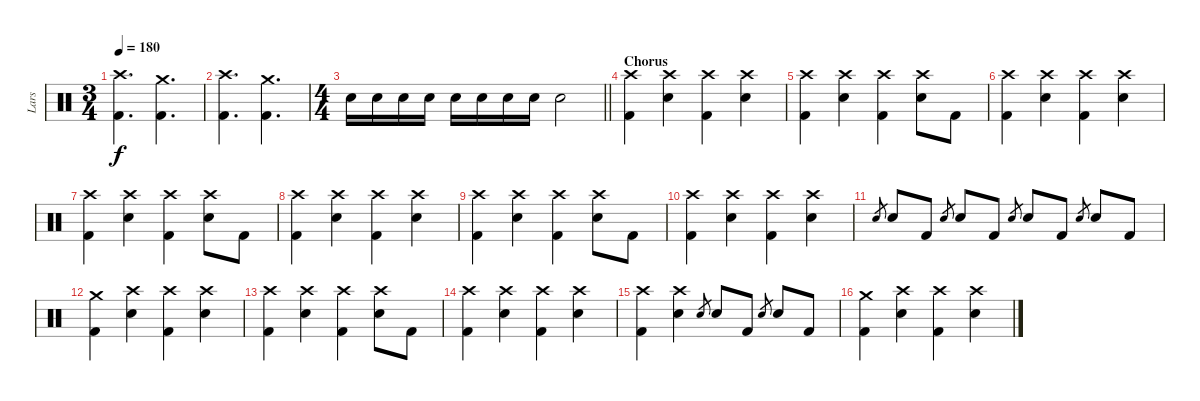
\track ("Lars" "Lars") {instrument percussion}
\staff {score}
\articulation defaults
\ts (3 4)
\tempo 180
\clef neutral
\ks c
("Crash high (hit)" "Kick (hit) 2").4{d dy f} ("Crash medium (hit)" "Kick (hit) 2").4{d} |
("Crash high (hit)" "Kick (hit) 2").4{d} ("Crash medium (hit)" "Kick (hit) 2").4{d} |
\ts (4 4)
\barLineRight lightlight "Electric Snare (hit)".16 "Electric Snare (hit)".16 "Electric Snare (hit)".16 "Electric Snare (hit)".16 "Electric Snare (hit)".16 "Electric Snare (hit)".16 "Electric Snare (hit)".16 "Electric Snare (hit)".16 "Electric Snare (hit)".2
|
\section ("" "Chorus")
("Crash high (hit)" "Kick (hit) 2").4 ("Crash high (hit)" "Electric Snare (hit)").4 ("Crash high (hit)" "Kick (hit) 2").4 ("Crash high (hit)" "Electric Snare (hit)").4 |
("Crash high (hit)" "Kick (hit) 2").4 ("Crash high (hit)" "Electric Snare (hit)").4 ("Crash high (hit)" "Kick (hit) 2").4 ("Crash high (hit)" "Electric Snare (hit)").8 "Kick (hit) 2".8 |
("Crash high (hit)" "Kick (hit) 2").4 ("Crash high (hit)" "Electric Snare (hit)").4 ("Crash high (hit)" "Kick (hit) 2").4 ("Crash high (hit)" "Electric Snare (hit)").4 |
("Crash high (hit)" "Kick (hit) 2").4 ("Crash high (hit)" "Electric Snare (hit)").4 ("Crash high (hit)" "Kick (hit) 2").4 ("Crash high (hit)" "Electric Snare (hit)").8 "Kick (hit) 2".8 |
("Crash high (hit)" "Kick (hit) 2").4 ("Crash high (hit)" "Electric Snare (hit)").4 ("Crash high (hit)" "Kick (hit) 2").4 ("Crash high (hit)" "Electric Snare (hit)").4 |
("Crash high (hit)" "Kick (hit) 2").4 ("Crash high (hit)" "Electric Snare (hit)").4 ("Crash high (hit)" "Kick (hit) 2").4 ("Crash high (hit)" "Electric Snare (hit)").8 "Kick (hit) 2".8 |
("Crash high (hit)" "Kick (hit) 2").4 ("Crash high (hit)" "Electric Snare (hit)").4 ("Crash high (hit)" "Kick (hit) 2").4 ("Crash high (hit)" "Electric Snare (hit)").4 |
"Electric Snare (hit)".8{gr} "Electric Snare (hit)".8 "Kick (hit) 2".8 "Electric Snare (hit)".8{gr} "Electric Snare (hit)".8 "Kick (hit) 2".8 "Electric Snare (hit)".8{gr} "Electric Snare (hit)".8 "Kick (hit) 2".8 "Electric Snare (hit)".8{gr} "Electric Snare (hit)".8 "Kick (hit) 2".8 |
("Crash medium (hit)" "Kick (hit) 2").4 ("Crash high (hit)" "Electric Snare (hit)").4 ("Crash high (hit)" "Kick (hit) 2").4 ("Crash high (hit)" "Electric Snare (hit)").4 |
("Crash high (hit)" "Kick (hit) 2").4 ("Crash high (hit)" "Electric Snare (hit)").4 ("Crash high (hit)" "Kick (hit) 2").4 ("Crash high (hit)" "Electric Snare (hit)").8 "Kick (hit) 2".8 |
("Crash high (hit)" "Kick (hit) 2").4 ("Crash high (hit)" "Electric Snare (hit)").4 ("Crash high (hit)" "Kick (hit) 2").4 ("Crash high (hit)" "Electric Snare (hit)").4 |
("Crash high (hit)" "Kick (hit) 2").4 ("Crash high (hit)" "Electric Snare (hit)").4 "Electric Snare (hit)".8{gr} "Electric Snare (hit)".8 "Kick (hit) 2".8 "Electric Snare (hit)".8{gr} "Electric Snare (hit)".8 "Kick (hit) 2".8 |
("Crash medium (hit)" "Kick (hit) 2").4 ("Crash high (hit)" "Electric Snare (hit)").4 ("Crash high (hit)" "Kick (hit) 2").4 ("Crash high (hit)" "Electric Snare (hit)").4
